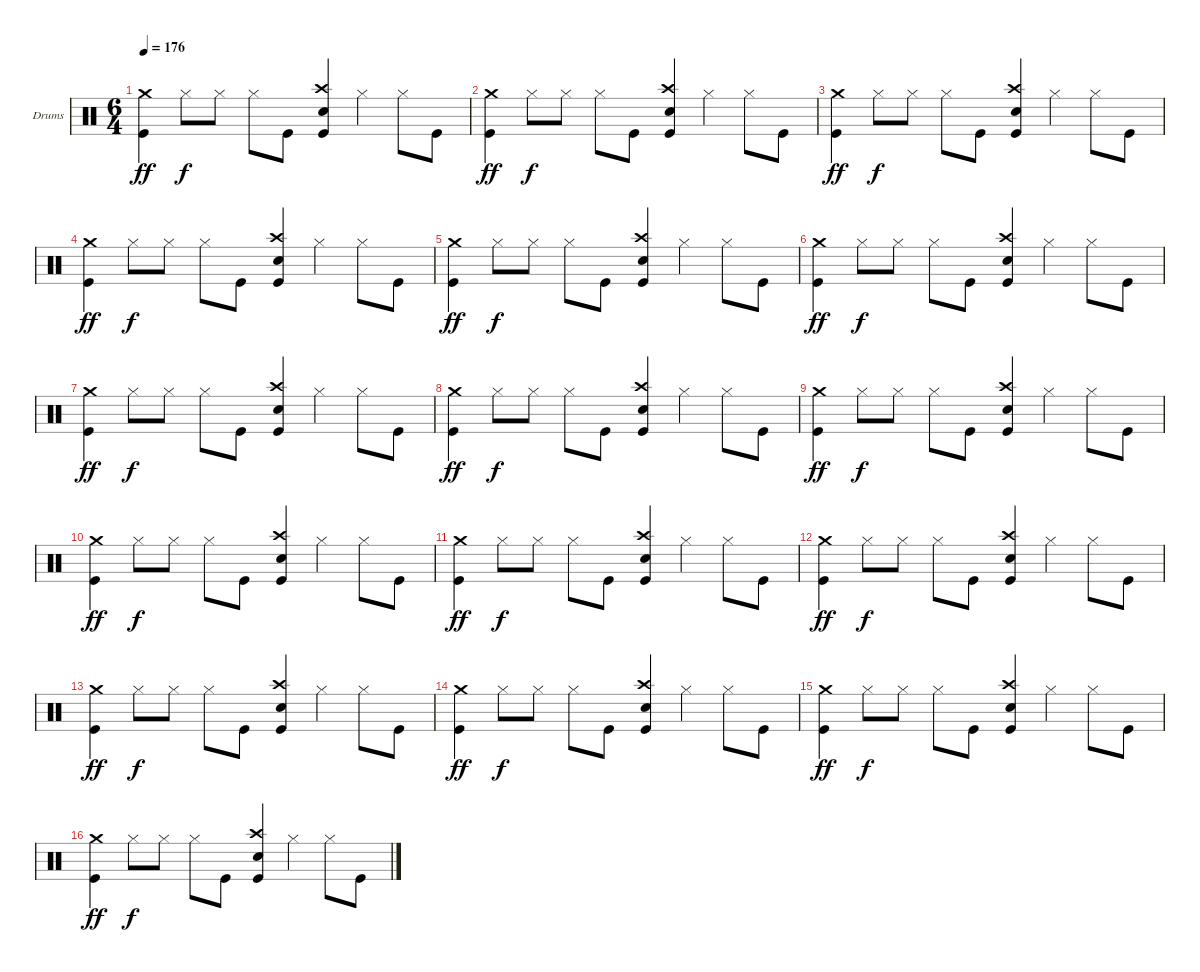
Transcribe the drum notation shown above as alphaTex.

\bracketExtendMode groupsimilarinstruments
\firstSystemTrackNameOrientation horizontal
\otherSystemsTrackNameOrientation horizontal
\track ("Drumkit" "Drums") {instrument percussion}
\staff {score}
\articulation defaults
\ts (6 4)
\tempo 176
\clef neutral
\ks c
("Crash medium (hit)" "Kick (hit)").4{dy ff} "Hi-Hat (closed)".8{dy f} "Hi-Hat (closed)".8 "Hi-Hat (closed)".8 "Kick (hit)".8 ("Crash high (hit)" "Snare (hit) 2" "Kick (hit)").4 "Hi-Hat (closed)".4 "Hi-Hat (closed)".8 "Kick (hit)".8 |
("Crash medium (hit)" "Kick (hit)").4{dy ff} "Hi-Hat (closed)".8{dy f} "Hi-Hat (closed)".8 "Hi-Hat (closed)".8 "Kick (hit)".8 ("Crash high (hit)" "Snare (hit) 2" "Kick (hit)").4 "Hi-Hat (closed)".4 "Hi-Hat (closed)".8 "Kick (hit)".8 |
("Crash medium (hit)" "Kick (hit)").4{dy ff} "Hi-Hat (closed)".8{dy f} "Hi-Hat (closed)".8 "Hi-Hat (closed)".8 "Kick (hit)".8 ("Crash high (hit)" "Snare (hit) 2" "Kick (hit)").4 "Hi-Hat (closed)".4 "Hi-Hat (closed)".8 "Kick (hit)".8 |
("Crash medium (hit)" "Kick (hit)").4{dy ff} "Hi-Hat (closed)".8{dy f} "Hi-Hat (closed)".8 "Hi-Hat (closed)".8 "Kick (hit)".8 ("Crash high (hit)" "Snare (hit) 2" "Kick (hit)").4 "Hi-Hat (closed)".4 "Hi-Hat (closed)".8 "Kick (hit)".8 |
("Crash medium (hit)" "Kick (hit)").4{dy ff} "Hi-Hat (closed)".8{dy f} "Hi-Hat (closed)".8 "Hi-Hat (closed)".8 "Kick (hit)".8 ("Crash high (hit)" "Snare (hit) 2" "Kick (hit)").4 "Hi-Hat (closed)".4 "Hi-Hat (closed)".8 "Kick (hit)".8 |
("Crash medium (hit)" "Kick (hit)").4{dy ff} "Hi-Hat (closed)".8{dy f} "Hi-Hat (closed)".8 "Hi-Hat (closed)".8 "Kick (hit)".8 ("Crash high (hit)" "Snare (hit) 2" "Kick (hit)").4 "Hi-Hat (closed)".4 "Hi-Hat (closed)".8 "Kick (hit)".8 |
("Crash medium (hit)" "Kick (hit)").4{dy ff} "Hi-Hat (closed)".8{dy f} "Hi-Hat (closed)".8 "Hi-Hat (closed)".8 "Kick (hit)".8 ("Crash high (hit)" "Snare (hit) 2" "Kick (hit)").4 "Hi-Hat (closed)".4 "Hi-Hat (closed)".8 "Kick (hit)".8 |
("Crash medium (hit)" "Kick (hit)").4{dy ff} "Hi-Hat (closed)".8{dy f} "Hi-Hat (closed)".8 "Hi-Hat (closed)".8 "Kick (hit)".8 ("Crash high (hit)" "Snare (hit) 2" "Kick (hit)").4 "Hi-Hat (closed)".4 "Hi-Hat (closed)".8 "Kick (hit)".8 |
("Crash medium (hit)" "Kick (hit)").4{dy ff} "Hi-Hat (closed)".8{dy f} "Hi-Hat (closed)".8 "Hi-Hat (closed)".8 "Kick (hit)".8 ("Crash high (hit)" "Snare (hit) 2" "Kick (hit)").4 "Hi-Hat (closed)".4 "Hi-Hat (closed)".8 "Kick (hit)".8 |
("Crash medium (hit)" "Kick (hit)").4{dy ff} "Hi-Hat (closed)".8{dy f} "Hi-Hat (closed)".8 "Hi-Hat (closed)".8 "Kick (hit)".8 ("Crash high (hit)" "Snare (hit) 2" "Kick (hit)").4 "Hi-Hat (closed)".4 "Hi-Hat (closed)".8 "Kick (hit)".8 |
("Crash medium (hit)" "Kick (hit)").4{dy ff} "Hi-Hat (closed)".8{dy f} "Hi-Hat (closed)".8 "Hi-Hat (closed)".8 "Kick (hit)".8 ("Crash high (hit)" "Snare (hit) 2" "Kick (hit)").4 "Hi-Hat (closed)".4 "Hi-Hat (closed)".8 "Kick (hit)".8 |
("Crash medium (hit)" "Kick (hit)").4{dy ff} "Hi-Hat (closed)".8{dy f} "Hi-Hat (closed)".8 "Hi-Hat (closed)".8 "Kick (hit)".8 ("Crash high (hit)" "Snare (hit) 2" "Kick (hit)").4 "Hi-Hat (closed)".4 "Hi-Hat (closed)".8 "Kick (hit)".8 |
("Crash medium (hit)" "Kick (hit)").4{dy ff} "Hi-Hat (closed)".8{dy f} "Hi-Hat (closed)".8 "Hi-Hat (closed)".8 "Kick (hit)".8 ("Crash high (hit)" "Snare (hit) 2" "Kick (hit)").4 "Hi-Hat (closed)".4 "Hi-Hat (closed)".8 "Kick (hit)".8 |
("Crash medium (hit)" "Kick (hit)").4{dy ff} "Hi-Hat (closed)".8{dy f} "Hi-Hat (closed)".8 "Hi-Hat (closed)".8 "Kick (hit)".8 ("Crash high (hit)" "Snare (hit) 2" "Kick (hit)").4 "Hi-Hat (closed)".4 "Hi-Hat (closed)".8 "Kick (hit)".8 |
("Crash medium (hit)" "Kick (hit)").4{dy ff} "Hi-Hat (closed)".8{dy f} "Hi-Hat (closed)".8 "Hi-Hat (closed)".8 "Kick (hit)".8 ("Crash high (hit)" "Snare (hit) 2" "Kick (hit)").4 "Hi-Hat (closed)".4 "Hi-Hat (closed)".8 "Kick (hit)".8 |
("Crash medium (hit)" "Kick (hit)").4{dy ff} "Hi-Hat (closed)".8{dy f} "Hi-Hat (closed)".8 "Hi-Hat (closed)".8 "Kick (hit)".8 ("Crash high (hit)" "Snare (hit) 2" "Kick (hit)").4 "Hi-Hat (closed)".4 "Hi-Hat (closed)".8 "Kick (hit)".8
